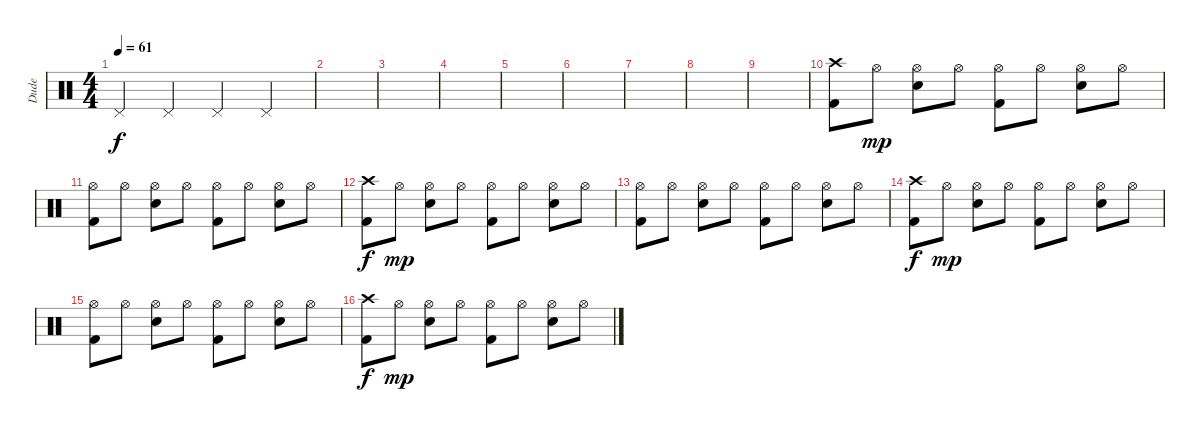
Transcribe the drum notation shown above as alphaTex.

\track ("Dude" "Dude") {instrument percussion}
\staff {score}
\articulation defaults
\ts (4 4)
\tempo 61
\clef neutral
\ks c "Pedal Hi-Hat (hit)".4{dy f} "Pedal Hi-Hat (hit)".4 "Pedal Hi-Hat (hit)".4 "Pedal Hi-Hat (hit)".4
|
|
|
|
|
|
|
|
|
("Kick (hit) 2" "Crash high (hit)").8 "Hi-Hat (open)".8{dy mp} ("Electric Snare (hit)" "Hi-Hat (open)").8 "Hi-Hat (open)".8 ("Kick (hit) 2" "Hi-Hat (open)").8 "Hi-Hat (open)".8 ("Electric Snare (hit)" "Hi-Hat (open)").8 "Hi-Hat (open)".8 |
("Kick (hit) 2" "Hi-Hat (open)").8 "Hi-Hat (open)".8 ("Electric Snare (hit)" "Hi-Hat (open)").8 "Hi-Hat (open)".8 ("Kick (hit) 2" "Hi-Hat (open)").8 "Hi-Hat (open)".8 ("Electric Snare (hit)" "Hi-Hat (open)").8 "Hi-Hat (open)".8 |
("Kick (hit) 2" "Crash high (hit)").8{dy f} "Hi-Hat (open)".8{dy mp} ("Electric Snare (hit)" "Hi-Hat (open)").8 "Hi-Hat (open)".8 ("Kick (hit) 2" "Hi-Hat (open)").8 "Hi-Hat (open)".8 ("Electric Snare (hit)" "Hi-Hat (open)").8 "Hi-Hat (open)".8 |
("Kick (hit) 2" "Hi-Hat (open)").8 "Hi-Hat (open)".8 ("Electric Snare (hit)" "Hi-Hat (open)").8 "Hi-Hat (open)".8 ("Kick (hit) 2" "Hi-Hat (open)").8 "Hi-Hat (open)".8 ("Electric Snare (hit)" "Hi-Hat (open)").8 "Hi-Hat (open)".8 |
("Kick (hit) 2" "Crash high (hit)").8{dy f} "Hi-Hat (open)".8{dy mp} ("Electric Snare (hit)" "Hi-Hat (open)").8 "Hi-Hat (open)".8 ("Kick (hit) 2" "Hi-Hat (open)").8 "Hi-Hat (open)".8 ("Electric Snare (hit)" "Hi-Hat (open)").8 "Hi-Hat (open)".8 |
("Kick (hit) 2" "Hi-Hat (open)").8 "Hi-Hat (open)".8 ("Electric Snare (hit)" "Hi-Hat (open)").8 "Hi-Hat (open)".8 ("Kick (hit) 2" "Hi-Hat (open)").8 "Hi-Hat (open)".8 ("Electric Snare (hit)" "Hi-Hat (open)").8 "Hi-Hat (open)".8 |
("Kick (hit) 2" "Crash high (hit)").8{dy f} "Hi-Hat (open)".8{dy mp} ("Electric Snare (hit)" "Hi-Hat (open)").8 "Hi-Hat (open)".8 ("Kick (hit) 2" "Hi-Hat (open)").8 "Hi-Hat (open)".8 ("Electric Snare (hit)" "Hi-Hat (open)").8 "Hi-Hat (open)".8
